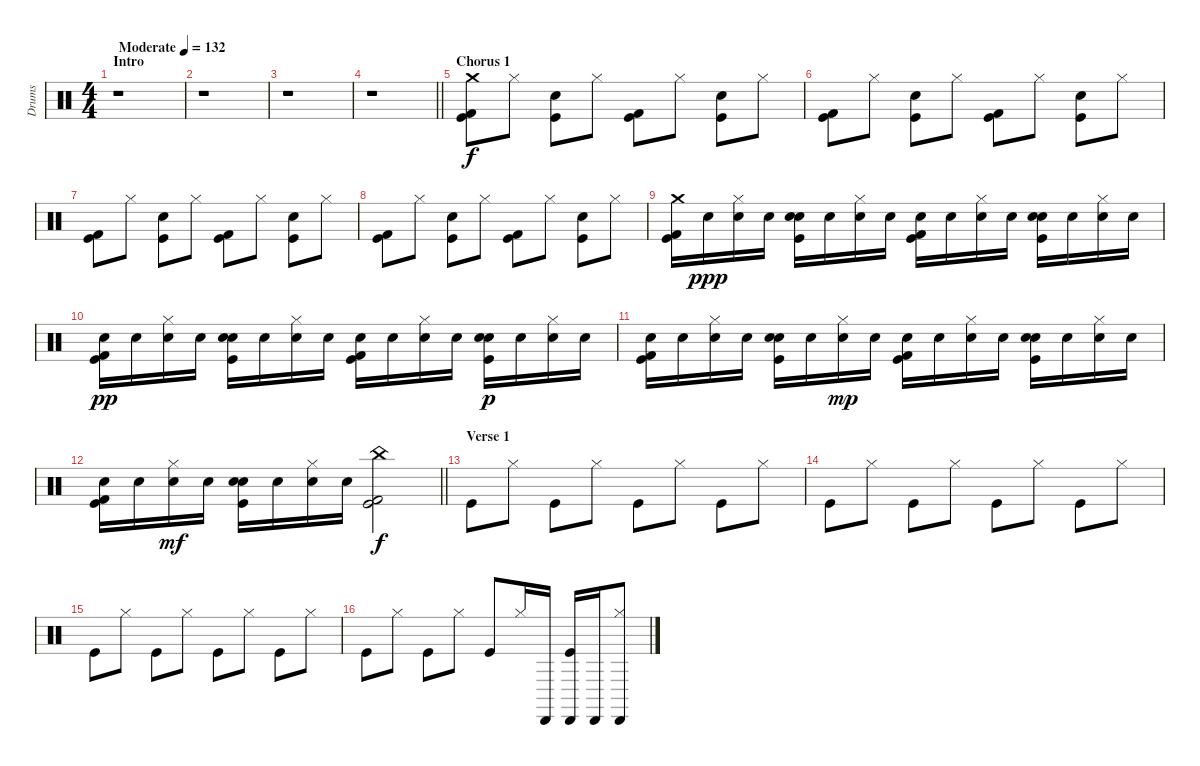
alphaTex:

\track ("Drums" "Drums") {instrument percussion}
\staff {score}
\articulation defaults
\ts (4 4)
\section ("" "Intro")
\tempo (132 "Moderate")
\clef neutral
\ks c
r.1{dy f} |
r.1 |
r.1 |
\barLineRight lightlight
r.1 |
\section ("" "Chorus 1")
("Crash medium (hit)" "Kick (hit)" "Kick (hit) 2").8 "Hi-Hat (closed)".8 ("Hand Clap (hit)" "Kick (hit)").8 "Hi-Hat (closed)".8 ("Kick (hit) 2" "Kick (hit)").8 "Hi-Hat (closed)".8 ("Kick (hit)" "Hand Clap (hit)").8 "Hi-Hat (closed)".8 |
("Kick (hit) 2" "Kick (hit)").8 "Hi-Hat (closed)".8 ("Kick (hit)" "Hand Clap (hit)").8 "Hi-Hat (closed)".8 ("Kick (hit)" "Kick (hit) 2").8 "Hi-Hat (closed)".8 ("Kick (hit)" "Hand Clap (hit)").8 "Hi-Hat (closed)".8 |
("Kick (hit)" "Kick (hit) 2").8 "Hi-Hat (closed)".8 ("Hand Clap (hit)" "Kick (hit)").8 "Hi-Hat (closed)".8 ("Kick (hit)" "Kick (hit) 2").8 "Hi-Hat (closed)".8 ("Kick (hit)" "Hand Clap (hit)").8 "Hi-Hat (closed)".8 |
("Kick (hit)" "Kick (hit) 2").8 "Hi-Hat (closed)".8 ("Hand Clap (hit)" "Kick (hit)").8 "Hi-Hat (closed)".8 ("Kick (hit)" "Kick (hit) 2").8 "Hi-Hat (closed)".8 ("Kick (hit)" "Hand Clap (hit)").8 "Hi-Hat (closed)".8 |
("Crash medium (hit)" "Kick (hit)" "Kick (hit) 2").16 "Electric Snare (hit)".16{dy ppp} ("Electric Snare (hit)" "Hi-Hat (closed)").16 "Electric Snare (hit)".16 ("Electric Snare (hit)" "Hand Clap (hit)" "Kick (hit)").16 "Electric Snare (hit)".16 ("Electric Snare (hit)" "Hi-Hat (closed)").16 "Electric Snare (hit)".16 ("Electric Snare (hit)" "Kick (hit)" "Kick (hit) 2").16 "Electric Snare (hit)".16 ("Hi-Hat (closed)" "Electric Snare (hit)").16 "Electric Snare (hit)".16 ("Electric Snare (hit)" "Kick (hit)" "Hand Clap (hit)").16 "Electric Snare (hit)".16 ("Hi-Hat (closed)" "Electric Snare (hit)").16 "Electric Snare (hit)".16 |
("Electric Snare (hit)" "Kick (hit) 2" "Kick (hit)").16{dy pp} "Electric Snare (hit)".16 ("Electric Snare (hit)" "Hi-Hat (closed)").16 "Electric Snare (hit)".16 ("Electric Snare (hit)" "Kick (hit)" "Hand Clap (hit)").16 "Electric Snare (hit)".16 ("Electric Snare (hit)" "Hi-Hat (closed)").16 "Electric Snare (hit)".16 ("Kick (hit)" "Electric Snare (hit)" "Kick (hit) 2").16 "Electric Snare (hit)".16 ("Electric Snare (hit)" "Hi-Hat (closed)").16 "Electric Snare (hit)".16 ("Hand Clap (hit)" "Kick (hit)" "Electric Snare (hit)").16{dy p} "Electric Snare (hit)".16 ("Electric Snare (hit)" "Hi-Hat (closed)").16 "Electric Snare (hit)".16 |
("Kick (hit)" "Electric Snare (hit)" "Kick (hit) 2").16 "Electric Snare (hit)".16 ("Electric Snare (hit)" "Hi-Hat (closed)").16 "Electric Snare (hit)".16 ("Kick (hit)" "Hand Clap (hit)" "Electric Snare (hit)").16 "Electric Snare (hit)".16 ("Electric Snare (hit)" "Hi-Hat (closed)").16{dy mp} "Electric Snare (hit)".16 ("Kick (hit) 2" "Kick (hit)" "Electric Snare (hit)").16 "Electric Snare (hit)".16 ("Electric Snare (hit)" "Hi-Hat (closed)").16 "Electric Snare (hit)".16 ("Kick (hit)" "Hand Clap (hit)" "Electric Snare (hit)").16 "Electric Snare (hit)".16 ("Hi-Hat (closed)" "Electric Snare (hit)").16 "Electric Snare (hit)".16 |
\barLineRight lightlight
("Kick (hit) 2" "Kick (hit)" "Electric Snare (hit)").16 "Electric Snare (hit)".16 ("Hi-Hat (closed)" "Electric Snare (hit)").16{dy mf} "Electric Snare (hit)".16 ("Kick (hit)" "Electric Snare (hit)" "Hand Clap (hit)").16 "Electric Snare (hit)".16 ("Hi-Hat (closed)" "Electric Snare (hit)").16 "Electric Snare (hit)".16 ("Kick (hit) 2" "Kick (hit)" "China (hit)").2{dy f} |
\section ("" "Verse 1")
"Kick (hit)".8 "Hi-Hat (closed)".8 "Kick (hit)".8 "Hi-Hat (closed)".8 "Kick (hit)".8 "Hi-Hat (closed)".8 "Kick (hit)".8 "Hi-Hat (closed)".8 |
"Kick (hit)".8 "Hi-Hat (closed)".8 "Kick (hit)".8 "Hi-Hat (closed)".8 "Kick (hit)".8 "Hi-Hat (closed)".8 "Kick (hit)".8 "Hi-Hat (closed)".8 |
"Kick (hit)".8 "Hi-Hat (closed)".8 "Kick (hit)".8 "Hi-Hat (closed)".8 "Kick (hit)".8 "Hi-Hat (closed)".8 "Kick (hit)".8 "Hi-Hat (closed)".8 |
"Kick (hit)".8 "Hi-Hat (closed)".8 "Kick (hit)".8 "Hi-Hat (closed)".8 "Kick (hit)".8 "Hi-Hat (closed)".16 "Cabasa (hit)".16 ("Cabasa (hit)" "Kick (hit)").16 "Cabasa (hit)".16 ("Cabasa (hit)" "Hi-Hat (closed)").8
